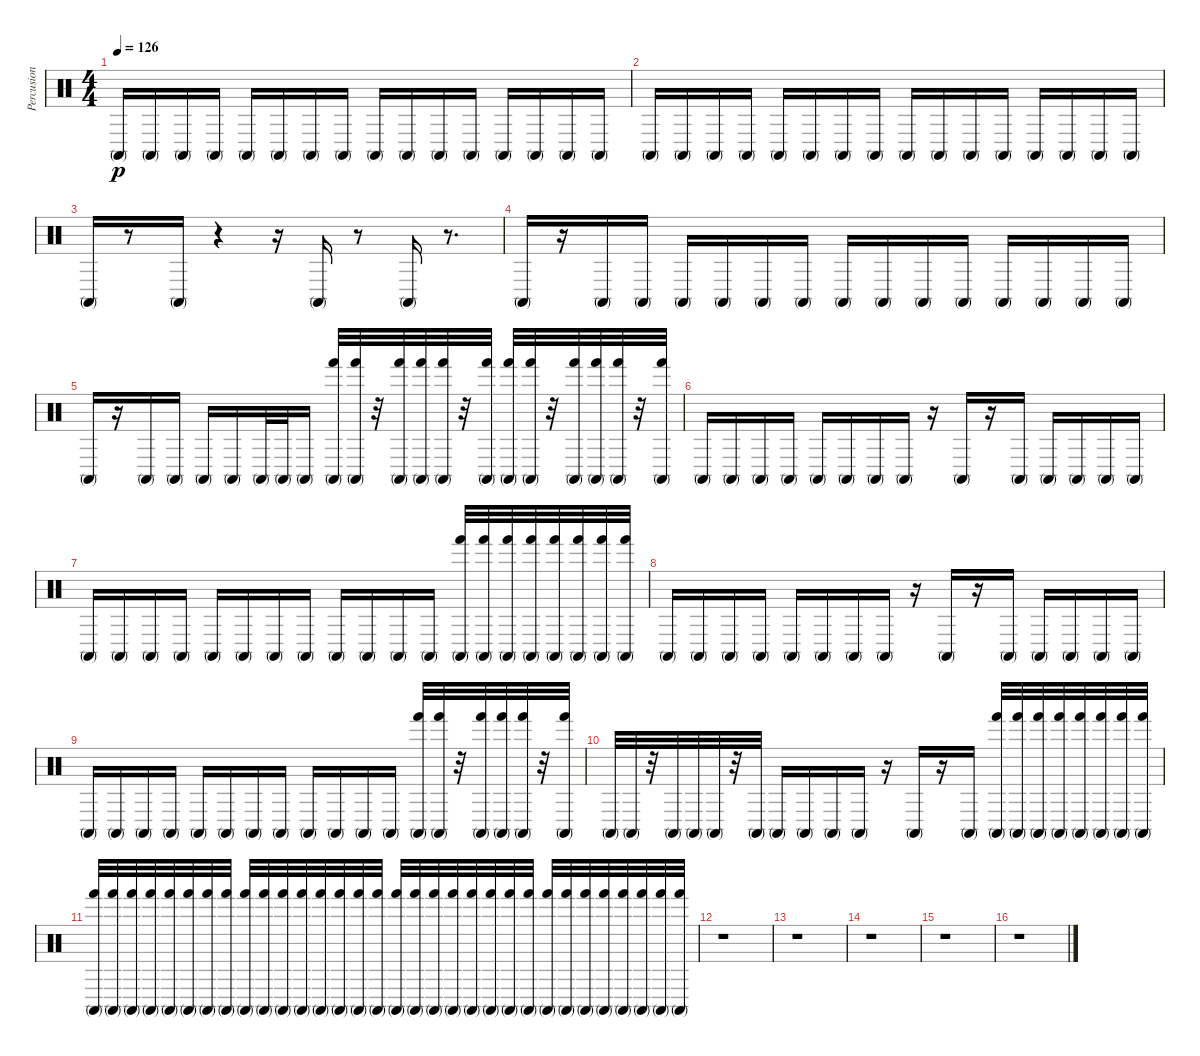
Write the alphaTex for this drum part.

\track ("Percusion" "Percusion") {instrument percussion}
\staff {score}
\articulation defaults
\ts (4 4)
\tempo 126
\clef neutral
\ks c "Conga high (mute)".16{dy p} "Conga high (mute)".16 "Conga high (mute)".16 "Conga high (mute)".16 "Conga high (mute)".16 "Conga high (mute)".16 "Conga high (mute)".16 "Conga high (mute)".16 "Conga high (mute)".16 "Conga high (mute)".16 "Conga high (mute)".16 "Conga high (mute)".16 "Conga high (mute)".16 "Conga high (mute)".16 "Conga high (mute)".16 "Conga high (mute)".16
|
"Conga high (mute)".16 "Conga high (mute)".16 "Conga high (mute)".16 "Conga high (mute)".16 "Conga high (mute)".16 "Conga high (mute)".16 "Conga high (mute)".16 "Conga high (mute)".16 "Conga high (mute)".16 "Conga high (mute)".16 "Conga high (mute)".16 "Conga high (mute)".16 "Conga high (mute)".16 "Conga high (mute)".16 "Conga high (mute)".16 "Conga high (mute)".16 |
"Conga high (mute)".16 r.8 "Conga high (mute)".16 r.4 r.16 "Conga high (mute)".16 r.8 "Conga high (mute)".16 r.8{d} |
"Conga high (mute)".16 r.16 "Conga high (mute)".16 "Conga high (mute)".16 "Conga high (mute)".16 "Conga high (mute)".16 "Conga high (mute)".16 "Conga high (mute)".16 "Conga high (mute)".16 "Conga high (mute)".16 "Conga high (mute)".16 "Conga high (mute)".16 "Conga high (mute)".16 "Conga high (mute)".16 "Conga high (mute)".16 "Conga high (mute)".16 |
"Conga high (mute)".16 r.16 "Conga high (mute)".16 "Conga high (mute)".16 "Conga high (mute)".16 "Conga high (mute)".16 "Conga high (mute)".32 "Conga high (mute)".32 "Conga high (mute)".16 ("Conga high (mute)" "Hand (hit)").32 ("Conga high (mute)" "Hand (hit)").32 r.32 ("Conga high (mute)" "Hand (hit)").32 ("Conga high (mute)" "Hand (hit)").32 ("Conga high (mute)" "Hand (hit)").32 r.32 ("Conga high (mute)" "Hand (hit)").32 ("Conga high (mute)" "Hand (hit)").32 ("Conga high (mute)" "Hand (hit)").32 r.32 ("Conga high (mute)" "Hand (hit)").32 ("Conga high (mute)" "Hand (hit)").32 ("Conga high (mute)" "Hand (hit)").32 r.32 ("Conga high (mute)" "Hand (hit)").32 |
"Conga high (mute)".16 "Conga high (mute)".16 "Conga high (mute)".16 "Conga high (mute)".16 "Conga high (mute)".16 "Conga high (mute)".16 "Conga high (mute)".16 "Conga high (mute)".16 r.16 "Conga high (mute)".16 r.16 "Conga high (mute)".16 "Conga high (mute)".16 "Conga high (mute)".16 "Conga high (mute)".16 "Conga high (mute)".16 |
"Conga high (mute)".16 "Conga high (mute)".16 "Conga high (mute)".16 "Conga high (mute)".16 "Conga high (mute)".16 "Conga high (mute)".16 "Conga high (mute)".16 "Conga high (mute)".16 "Conga high (mute)".16 "Conga high (mute)".16 "Conga high (mute)".16 "Conga high (mute)".16 ("Hand (hit)" "Conga high (mute)").32 ("Hand (hit)" "Conga high (mute)").32 ("Hand (hit)" "Conga high (mute)").32 ("Hand (hit)" "Conga high (mute)").32 ("Hand (hit)" "Conga high (mute)").32 ("Hand (hit)" "Conga high (mute)").32 ("Hand (hit)" "Conga high (mute)").32 ("Hand (hit)" "Conga high (mute)").32 |
"Conga high (mute)".16 "Conga high (mute)".16 "Conga high (mute)".16 "Conga high (mute)".16 "Conga high (mute)".16 "Conga high (mute)".16 "Conga high (mute)".16 "Conga high (mute)".16 r.16 "Conga high (mute)".16 r.16 "Conga high (mute)".16 "Conga high (mute)".16 "Conga high (mute)".16 "Conga high (mute)".16 "Conga high (mute)".16 |
"Conga high (mute)".16 "Conga high (mute)".16 "Conga high (mute)".16 "Conga high (mute)".16 "Conga high (mute)".16 "Conga high (mute)".16 "Conga high (mute)".16 "Conga high (mute)".16 "Conga high (mute)".16 "Conga high (mute)".16 "Conga high (mute)".16 "Conga high (mute)".16 ("Hand (hit)" "Conga high (mute)").32 ("Hand (hit)" "Conga high (mute)").32 r.32 ("Hand (hit)" "Conga high (mute)").32 ("Hand (hit)" "Conga high (mute)").32 ("Hand (hit)" "Conga high (mute)").32 r.32 ("Hand (hit)" "Conga high (mute)").32 |
"Conga high (mute)".32 "Conga high (mute)".32 r.32 "Conga high (mute)".32 "Conga high (mute)".32 "Conga high (mute)".32 r.32 "Conga high (mute)".32 "Conga high (mute)".16 "Conga high (mute)".16 "Conga high (mute)".16 "Conga high (mute)".16 r.16 "Conga high (mute)".16 r.16 "Conga high (mute)".16 ("Hand (hit)" "Conga high (mute)").32 ("Hand (hit)" "Conga high (mute)").32 ("Hand (hit)" "Conga high (mute)").32 ("Hand (hit)" "Conga high (mute)").32 ("Hand (hit)" "Conga high (mute)").32 ("Hand (hit)" "Conga high (mute)").32 ("Hand (hit)" "Conga high (mute)").32 ("Hand (hit)" "Conga high (mute)").32 |
("Hand (hit)" "Conga high (mute)").32 ("Hand (hit)" "Conga high (mute)").32 ("Hand (hit)" "Conga high (mute)").32 ("Hand (hit)" "Conga high (mute)").32 ("Hand (hit)" "Conga high (mute)").32 ("Hand (hit)" "Conga high (mute)").32 ("Hand (hit)" "Conga high (mute)").32 ("Hand (hit)" "Conga high (mute)").32 ("Hand (hit)" "Conga high (mute)").32 ("Hand (hit)" "Conga high (mute)").32 ("Hand (hit)" "Conga high (mute)").32 ("Hand (hit)" "Conga high (mute)").32 ("Hand (hit)" "Conga high (mute)").32 ("Hand (hit)" "Conga high (mute)").32 ("Hand (hit)" "Conga high (mute)").32 ("Hand (hit)" "Conga high (mute)").32 ("Hand (hit)" "Conga high (mute)").32 ("Hand (hit)" "Conga high (mute)").32 ("Hand (hit)" "Conga high (mute)").32 ("Hand (hit)" "Conga high (mute)").32 ("Hand (hit)" "Conga high (mute)").32 ("Hand (hit)" "Conga high (mute)").32 ("Hand (hit)" "Conga high (mute)").32 ("Hand (hit)" "Conga high (mute)").32 ("Hand (hit)" "Conga high (mute)").32 ("Hand (hit)" "Conga high (mute)").32 ("Hand (hit)" "Conga high (mute)").32 ("Hand (hit)" "Conga high (mute)").32 ("Hand (hit)" "Conga high (mute)").32 ("Hand (hit)" "Conga high (mute)").32 ("Hand (hit)" "Conga high (mute)").32 ("Hand (hit)" "Conga high (mute)").32 |
r.1 |
r.1 |
r.1 |
r.1 |
r.1
